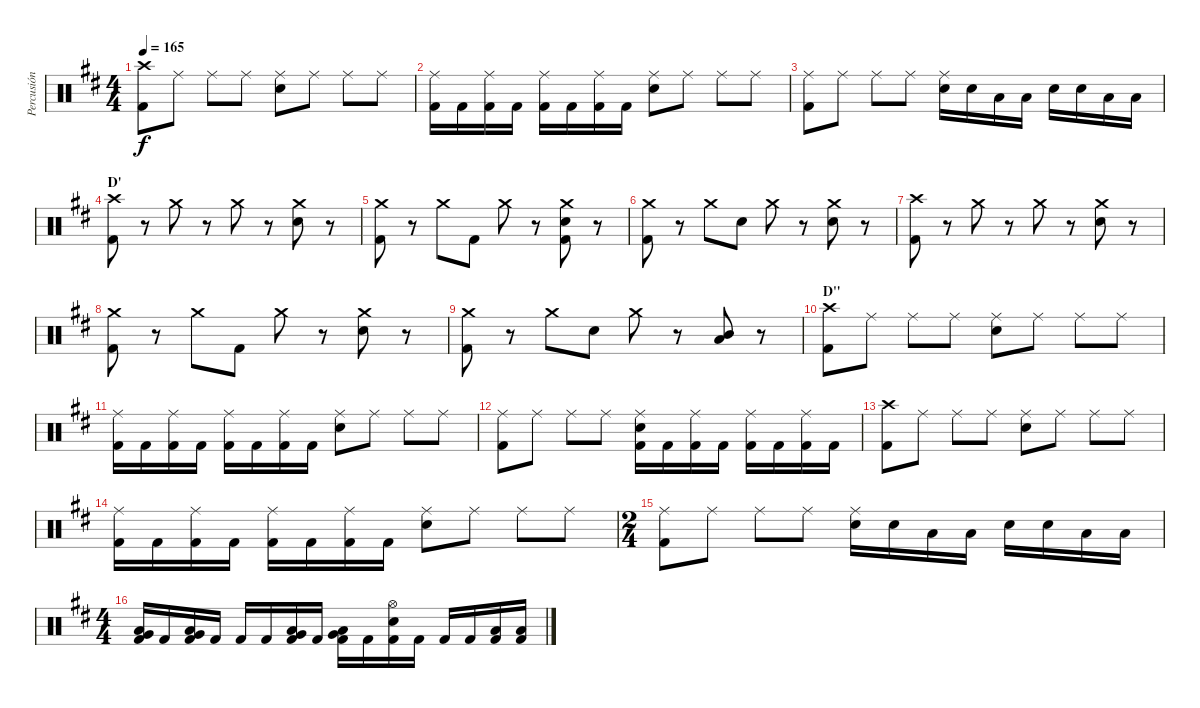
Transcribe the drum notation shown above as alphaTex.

\track ("Percusión" "Percusión") {instrument percussion}
\staff {score}
\articulation defaults
\ts (4 4)
\tempo 165
\clef neutral
\ks d
("Crash high (hit)" "Kick (hit) 2").8{dy f} "Ride (middle)".8 "Ride (middle)".8 "Ride (middle)".8 ("Ride (middle)" "Electric Snare (hit)").8 "Ride (middle)".8 "Ride (middle)".8 "Ride (middle)".8 |
("Ride (middle)" "Kick (hit) 2").16 "Kick (hit) 2".16 ("Ride (middle)" "Kick (hit) 2").16 "Kick (hit) 2".16 ("Ride (middle)" "Kick (hit) 2").16 "Kick (hit) 2".16 ("Ride (middle)" "Kick (hit) 2").16 "Kick (hit) 2".16 ("Ride (middle)" "Electric Snare (hit)").8 "Ride (middle)".8 "Ride (middle)".8 "Ride (middle)".8 |
("Ride (middle)" "Kick (hit) 2").8 "Ride (middle)".8 "Ride (middle)".8 "Ride (middle)".8 ("Ride (middle)" "Electric Snare (hit)").16 "Electric Snare (hit)".16 "Low Tom (hit)".16 "Low Tom (hit)".16 "Electric Snare (hit)".16 "Electric Snare (hit)".16 "Low Tom (hit)".16 "Low Tom (hit)".16 |
\section ("" "D'")
("Crash high (hit)" "Kick (hit) 2").8 r.8 "Crash medium (hit)".8 r.8 "Crash medium (hit)".8 r.8 ("Crash medium (hit)" "Electric Snare (hit)").8 r.8 |
("Crash medium (hit)" "Kick (hit) 2").8 r.8 "Crash medium (hit)".8 "Kick (hit) 2".8 "Crash medium (hit)".8 r.8 ("Crash medium (hit)" "Electric Snare (hit)" "Kick (hit) 2").8 r.8 |
("Crash medium (hit)" "Kick (hit) 2").8 r.8 "Crash medium (hit)".8 "Electric Snare (hit)".8 "Crash medium (hit)".8 r.8 ("Crash medium (hit)" "Electric Snare (hit)").8 r.8 |
("Crash high (hit)" "Kick (hit) 2").8 r.8 "Crash medium (hit)".8 r.8 "Crash medium (hit)".8 r.8 ("Crash medium (hit)" "Electric Snare (hit)").8 r.8 |
("Crash medium (hit)" "Kick (hit) 2").8 r.8 "Crash medium (hit)".8 "Kick (hit) 2".8 "Crash medium (hit)".8 r.8 ("Crash medium (hit)" "Electric Snare (hit)").8 r.8 |
("Crash medium (hit)" "Kick (hit) 2").8 r.8 "Crash medium (hit)".8 "Electric Snare (hit)".8 "Crash medium (hit)".8 r.8 ("Mid Tom (hit)" "Low Tom (hit)").8 r.8 |
\section ("" "D''")
("Crash high (hit)" "Kick (hit) 2").8 "Ride (middle)".8 "Ride (middle)".8 "Ride (middle)".8 ("Ride (middle)" "Electric Snare (hit)").8 "Ride (middle)".8 "Ride (middle)".8 "Ride (middle)".8 |
("Ride (middle)" "Kick (hit) 2").16 "Kick (hit) 2".16 ("Ride (middle)" "Kick (hit) 2").16 "Kick (hit) 2".16 ("Ride (middle)" "Kick (hit) 2").16 "Kick (hit) 2".16 ("Ride (middle)" "Kick (hit) 2").16 "Kick (hit) 2".16 ("Ride (middle)" "Electric Snare (hit)").8 "Ride (middle)".8 "Ride (middle)".8 "Ride (middle)".8 |
("Ride (middle)" "Kick (hit) 2").8 "Ride (middle)".8 "Ride (middle)".8 "Ride (middle)".8 ("Ride (middle)" "Electric Snare (hit)" "Kick (hit) 2").16 "Kick (hit) 2".16 ("Ride (middle)" "Kick (hit) 2").16 "Kick (hit) 2".16 ("Ride (middle)" "Kick (hit) 2").16 "Kick (hit) 2".16 ("Ride (middle)" "Kick (hit) 2").16 "Kick (hit) 2".16 |
("Crash high (hit)" "Kick (hit) 2").8 "Ride (middle)".8 "Ride (middle)".8 "Ride (middle)".8 ("Ride (middle)" "Electric Snare (hit)").8 "Ride (middle)".8 "Ride (middle)".8 "Ride (middle)".8 |
("Ride (middle)" "Kick (hit) 2").16 "Kick (hit) 2".16 ("Ride (middle)" "Kick (hit) 2").16 "Kick (hit) 2".16 ("Ride (middle)" "Kick (hit) 2").16 "Kick (hit) 2".16 ("Ride (middle)" "Kick (hit) 2").16 "Kick (hit) 2".16 ("Ride (middle)" "Electric Snare (hit)").8 "Ride (middle)".8 "Ride (middle)".8 "Ride (middle)".8 |
\ts (2 4)
("Ride (middle)" "Kick (hit) 2").8 "Ride (middle)".8 "Ride (middle)".8 "Ride (middle)".8 ("Ride (middle)" "Electric Snare (hit)").16 "Electric Snare (hit)".16 "Low Tom (hit)".16 "Low Tom (hit)".16 "Electric Snare (hit)".16 "Electric Snare (hit)".16 "Low Tom (hit)".16 "Low Tom (hit)".16 |
\ts (4 4)
("Very Low Tom (hit)" "Low Floor Tom (hit)" "Kick (hit) 2").16 "Kick (hit) 2".16 ("Very Low Tom (hit)" "Low Floor Tom (hit)" "Kick (hit) 2").16 "Kick (hit) 2".16 "Kick (hit) 2".16 "Kick (hit) 2".16 ("Very Low Tom (hit)" "Low Floor Tom (hit)" "Kick (hit) 2").16 "Kick (hit) 2".16 ("Very Low Tom (hit)" "Low Floor Tom (hit)" "Kick (hit) 2").16 "Kick (hit) 2".16 ("Hi-Hat (open)" "Electric Snare (hit)" "Kick (hit) 2").16 "Kick (hit) 2".16 "Kick (hit) 2".16 "Kick (hit) 2".16 ("Low Tom (hit)" "Kick (hit) 2").16 ("Low Tom (hit)" "Kick (hit) 2").16
